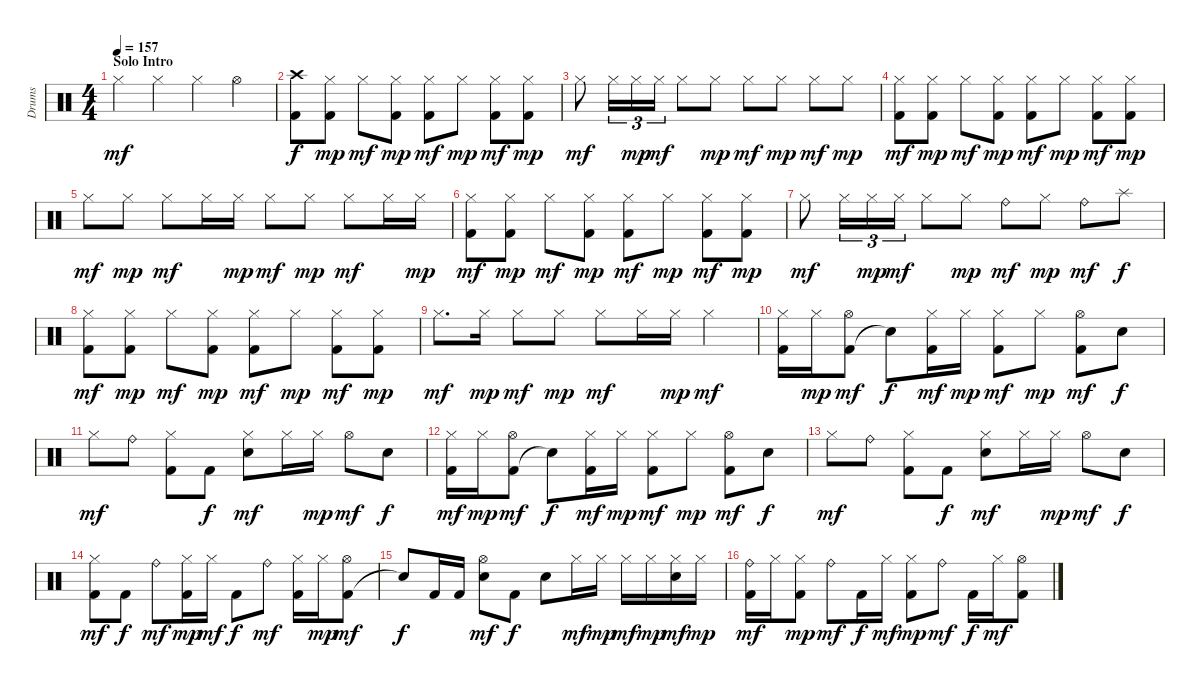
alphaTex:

\track ("Drums" "Drums") {instrument percussion}
\staff {score}
\articulation defaults
\ts (4 4)
\section ("" "Solo Intro")
\tempo 157
\clef neutral
\ks c "Hi-Hat (closed)".4{dy mf} "Hi-Hat (closed)".4 "Hi-Hat (closed)".4 "Hi-Hat (open)".4
|
("Kick (hit) 2" "Crash high (hit)").8{dy f} ("Kick (hit) 2" "Hi-Hat (closed)").8{dy mp} "Hi-Hat (closed)".8{dy mf} ("Kick (hit) 2" "Hi-Hat (closed)").8{dy mp} ("Kick (hit) 2" "Hi-Hat (closed)").8{dy mf} "Hi-Hat (closed)".8{dy mp} ("Kick (hit) 2" "Hi-Hat (closed)").8{dy mf} ("Kick (hit) 2" "Hi-Hat (closed)").8{dy mp} |
"Hi-Hat (closed)".8{dy mf} "Hi-Hat (closed)".16{tu (3 2)} "Hi-Hat (closed)".16{tu (3 2) dy mp} "Hi-Hat (closed)".16{tu (3 2) dy mf} "Hi-Hat (closed)".8 "Hi-Hat (closed)".8{dy mp} "Hi-Hat (closed)".8{dy mf} "Hi-Hat (closed)".8{dy mp} "Hi-Hat (closed)".8{dy mf} "Hi-Hat (closed)".8{dy mp} |
("Kick (hit) 2" "Hi-Hat (closed)").8{dy mf} ("Kick (hit) 2" "Hi-Hat (closed)").8{dy mp} "Hi-Hat (closed)".8{dy mf} ("Kick (hit) 2" "Hi-Hat (closed)").8{dy mp} ("Kick (hit) 2" "Hi-Hat (closed)").8{dy mf} "Hi-Hat (closed)".8{dy mp} ("Kick (hit) 2" "Hi-Hat (closed)").8{dy mf} ("Kick (hit) 2" "Hi-Hat (closed)").8{dy mp} |
"Hi-Hat (closed)".8{dy mf} "Hi-Hat (closed)".8{dy mp} "Hi-Hat (closed)".8{dy mf} "Hi-Hat (closed)".16 "Hi-Hat (closed)".16{dy mp} "Hi-Hat (closed)".8{dy mf} "Hi-Hat (closed)".8{dy mp} "Hi-Hat (closed)".8{dy mf} "Hi-Hat (closed)".16 "Hi-Hat (closed)".16{dy mp} |
("Kick (hit) 2" "Hi-Hat (closed)").8{dy mf} ("Kick (hit) 2" "Hi-Hat (closed)").8{dy mp} "Hi-Hat (closed)".8{dy mf} ("Kick (hit) 2" "Hi-Hat (closed)").8{dy mp} ("Kick (hit) 2" "Hi-Hat (closed)").8{dy mf} "Hi-Hat (closed)".8{dy mp} ("Kick (hit) 2" "Hi-Hat (closed)").8{dy mf} ("Kick (hit) 2" "Hi-Hat (closed)").8{dy mp} |
"Hi-Hat (closed)".8{dy mf} "Hi-Hat (closed)".16{tu (3 2)} "Hi-Hat (closed)".16{tu (3 2) dy mp} "Hi-Hat (closed)".16{tu (3 2) dy mf} "Hi-Hat (closed)".8 "Hi-Hat (closed)".8{dy mp} "Ride (bell)".8{dy mf} "Hi-Hat (closed)".8{dy mp} "Ride (bell)".8{dy mf} "Splash (hit)".8{dy f} |
("Kick (hit) 2" "Hi-Hat (closed)").8{dy mf} ("Kick (hit) 2" "Hi-Hat (closed)").8{dy mp} "Hi-Hat (closed)".8{dy mf} ("Kick (hit) 2" "Hi-Hat (closed)").8{dy mp} ("Kick (hit) 2" "Hi-Hat (closed)").8{dy mf} "Hi-Hat (closed)".8{dy mp} ("Kick (hit) 2" "Hi-Hat (closed)").8{dy mf} ("Kick (hit) 2" "Hi-Hat (closed)").8{dy mp} |
"Hi-Hat (closed)".8{d dy mf} "Hi-Hat (closed)".16{dy mp} "Hi-Hat (closed)".8{dy mf} "Hi-Hat (closed)".8{dy mp} "Hi-Hat (closed)".8{dy mf} "Hi-Hat (closed)".16 "Hi-Hat (closed)".16{dy mp} "Hi-Hat (closed)".4{dy mf} |
("Kick (hit) 2" "Hi-Hat (closed)").16 "Hi-Hat (closed)".16{dy mp} ("Kick (hit) 2" "Hi-Hat (open)").8{dy mf} "Snare (hit)"{t}.8{dy f} ("Kick (hit) 2" "Hi-Hat (closed)").16{dy mf} "Hi-Hat (closed)".16{dy mp} ("Kick (hit) 2" "Hi-Hat (closed)").8{dy mf} "Hi-Hat (closed)".8{dy mp} ("Kick (hit) 2" "Hi-Hat (open)").8{dy mf} "Electric Snare (hit)".8{dy f} |
"Hi-Hat (closed)".8{dy mf} "Ride (bell)".8 ("Kick (hit) 2" "Hi-Hat (closed)").8 "Kick (hit) 2".8{dy f} ("Hi-Hat (closed)" "Electric Snare (hit)").8{dy mf} "Hi-Hat (closed)".16 "Hi-Hat (closed)".16{dy mp} "Hi-Hat (open)".8{dy mf} "Electric Snare (hit)".8{dy f} |
("Kick (hit) 2" "Hi-Hat (closed)").16{dy mf} "Hi-Hat (closed)".16{dy mp} ("Kick (hit) 2" "Hi-Hat (open)").8{dy mf} "Snare (hit)"{t}.8{dy f} ("Kick (hit) 2" "Hi-Hat (closed)").16{dy mf} "Hi-Hat (closed)".16{dy mp} ("Kick (hit) 2" "Hi-Hat (closed)").8{dy mf} "Hi-Hat (closed)".8{dy mp} ("Kick (hit) 2" "Hi-Hat (open)").8{dy mf} "Electric Snare (hit)".8{dy f} |
"Hi-Hat (closed)".8{dy mf} "Ride (bell)".8 ("Kick (hit) 2" "Hi-Hat (closed)").8 "Kick (hit) 2".8{dy f} ("Hi-Hat (closed)" "Electric Snare (hit)").8{dy mf} "Hi-Hat (closed)".16 "Hi-Hat (closed)".16{dy mp} "Hi-Hat (open)".8{dy mf} "Electric Snare (hit)".8{dy f} |
("Kick (hit) 2" "Hi-Hat (closed)").8{dy mf} "Kick (hit) 2".8{dy f} "Ride (bell)".8{dy mf} ("Kick (hit) 2" "Hi-Hat (closed)").16{dy mp} "Hi-Hat (closed)".16{dy mf} "Kick (hit) 2".8{dy f} "Ride (bell)".8{dy mf} ("Kick (hit) 2" "Hi-Hat (closed)").16 "Hi-Hat (closed)".16{dy mp} ("Kick (hit) 2" "Hi-Hat (open)").8{dy mf} |
"Snare (hit)"{t}.8{dy f} "Kick (hit) 2".16 "Kick (hit) 2".16 ("Hi-Hat (open)" "Electric Snare (hit)").8{dy mf} "Kick (hit) 2".8{dy f} "Electric Snare (hit)".8 "Hi-Hat (closed)".16{dy mf} "Hi-Hat (closed)".16{dy mp} "Hi-Hat (closed)".16{dy mf} "Hi-Hat (closed)".16{dy mp} ("Hi-Hat (closed)" "Electric Snare (hit)").16{dy mf} "Hi-Hat (closed)".16{dy mp} |
("Kick (hit) 2" "Ride (bell)").16{dy mf} "Hi-Hat (closed)".16 ("Kick (hit) 2" "Hi-Hat (closed)").8{dy mp} "Ride (bell)".8{dy mf} "Kick (hit) 2".16{dy f} "Hi-Hat (closed)".16{dy mf} ("Kick (hit) 2" "Hi-Hat (closed)").8{dy mp} "Ride (bell)".8{dy mf} "Kick (hit) 2".16{dy f} "Hi-Hat (closed)".16{dy mf} ("Kick (hit) 2" "Hi-Hat (open)").8
